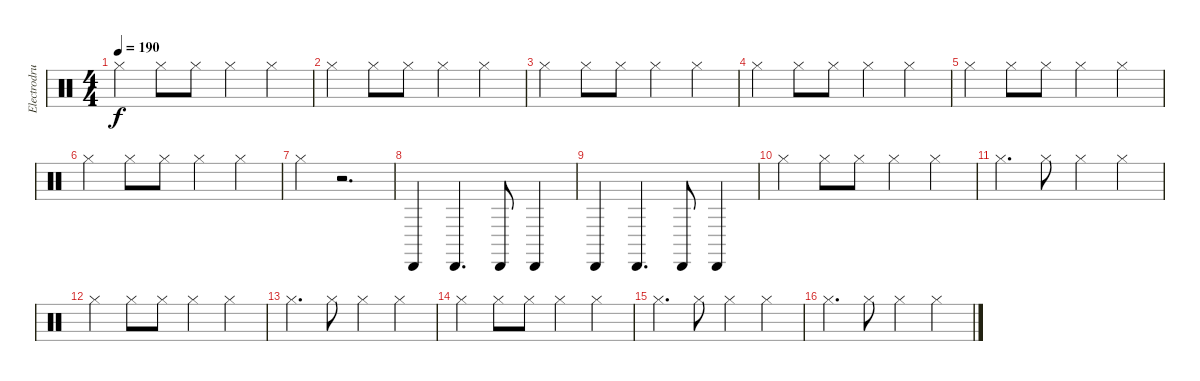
\track ("Electrodrums1" "Electrodru") {instrument percussion}
\staff {score}
\articulation defaults
\ts (4 4)
\tempo 190
\clef neutral
\ks c "Hi-Hat (closed)".4{dy f} "Hi-Hat (closed)".8 "Hi-Hat (closed)".8 "Hi-Hat (closed)".4 "Hi-Hat (closed)".4
|
"Hi-Hat (closed)".4 "Hi-Hat (closed)".8 "Hi-Hat (closed)".8 "Hi-Hat (closed)".4 "Hi-Hat (closed)".4 |
"Hi-Hat (closed)".4 "Hi-Hat (closed)".8 "Hi-Hat (closed)".8 "Hi-Hat (closed)".4 "Hi-Hat (closed)".4 |
"Hi-Hat (closed)".4 "Hi-Hat (closed)".8 "Hi-Hat (closed)".8 "Hi-Hat (closed)".4 "Hi-Hat (closed)".4 |
"Hi-Hat (closed)".4 "Hi-Hat (closed)".8 "Hi-Hat (closed)".8 "Hi-Hat (closed)".4 "Hi-Hat (closed)".4 |
"Hi-Hat (closed)".4 "Hi-Hat (closed)".8 "Hi-Hat (closed)".8 "Hi-Hat (closed)".4 "Hi-Hat (closed)".4 |
"Hi-Hat (closed)".4 r.2{d} |
"Cabasa (hit)".4 "Cabasa (hit)".4{d} "Cabasa (hit)".8 "Cabasa (hit)".4 |
"Cabasa (hit)".4 "Cabasa (hit)".4{d} "Cabasa (hit)".8 "Cabasa (hit)".4 |
"Hi-Hat (closed)".4 "Hi-Hat (closed)".8 "Hi-Hat (closed)".8 "Hi-Hat (closed)".4 "Hi-Hat (closed)".4 |
"Hi-Hat (closed)".4{d} "Hi-Hat (closed)".8 "Hi-Hat (closed)".4 "Hi-Hat (closed)".4 |
"Hi-Hat (closed)".4 "Hi-Hat (closed)".8 "Hi-Hat (closed)".8 "Hi-Hat (closed)".4 "Hi-Hat (closed)".4 |
"Hi-Hat (closed)".4{d} "Hi-Hat (closed)".8 "Hi-Hat (closed)".4 "Hi-Hat (closed)".4 |
"Hi-Hat (closed)".4 "Hi-Hat (closed)".8 "Hi-Hat (closed)".8 "Hi-Hat (closed)".4 "Hi-Hat (closed)".4 |
"Hi-Hat (closed)".4{d} "Hi-Hat (closed)".8 "Hi-Hat (closed)".4 "Hi-Hat (closed)".4 |
"Hi-Hat (closed)".4{d} "Hi-Hat (closed)".8 "Hi-Hat (closed)".4 "Hi-Hat (closed)".4
